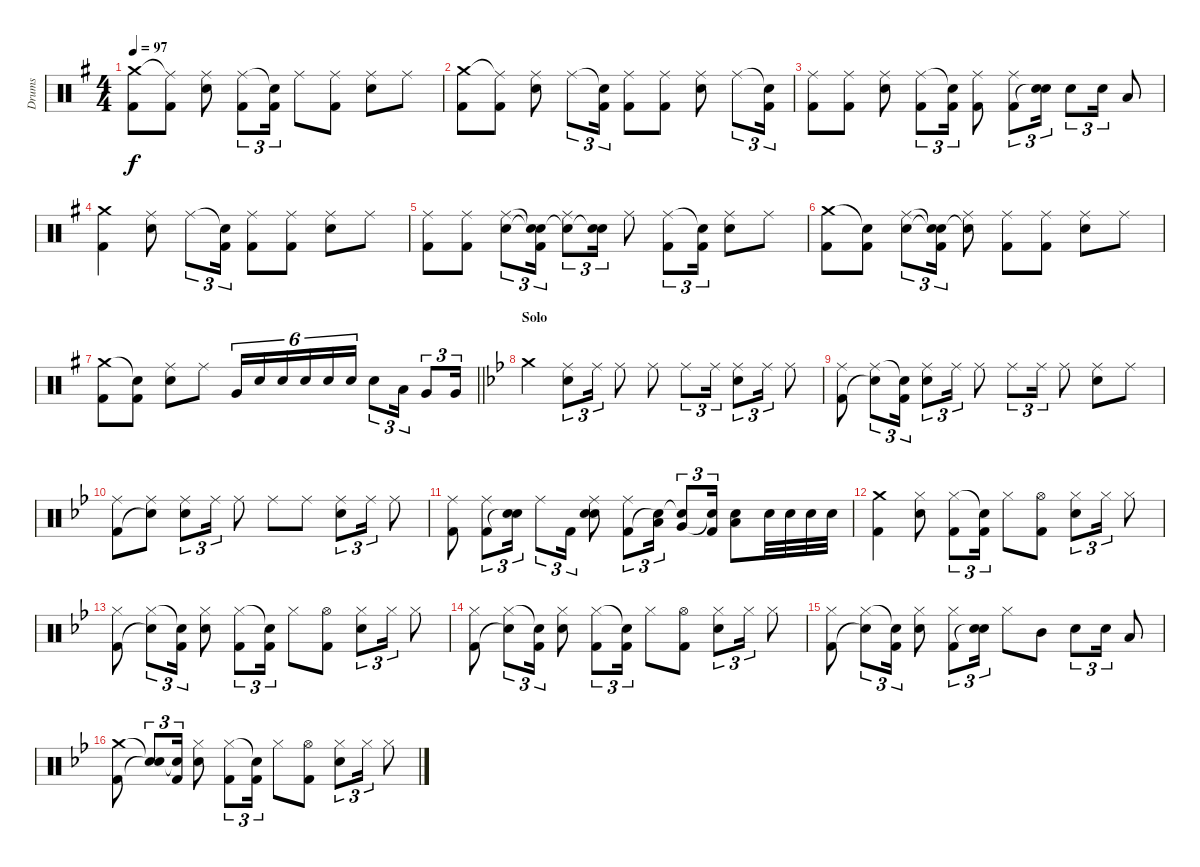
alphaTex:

\track ("Drums" "Drums") {instrument percussion}
\staff {score}
\articulation defaults
\ts (4 4)
\tempo 97
\clef neutral
\ks g
("Crash medium (hit)" "Kick (hit) 2").8{dy f} ("Ride (middle)"{t} "Kick (hit) 2").8 ("Ride (middle)" "Electric Snare (hit)").8 ("Ride (middle)" "Kick (hit) 2").8{tu (3 2)} ("Snare (hit)"{t} "Kick (hit) 2").16{tu (3 2)} "Ride (middle)".8 ("Ride (middle)" "Kick (hit) 2").8 ("Ride (middle)" "Electric Snare (hit)").8 "Ride (middle)".8 |
("Crash medium (hit)" "Kick (hit) 2").8 ("Ride (middle)"{t} "Kick (hit) 2").8 ("Ride (middle)" "Electric Snare (hit)").8 "Ride (middle)".8{tu (3 2)} ("Snare (hit)"{t} "Kick (hit) 2").16{tu (3 2)} ("Ride (middle)" "Kick (hit) 2").8 ("Ride (middle)" "Kick (hit) 2").8 ("Ride (middle)" "Electric Snare (hit)").8 "Ride (middle)".8{tu (3 2)} ("Snare (hit)"{t} "Kick (hit) 2").16{tu (3 2)} |
("Ride (middle)" "Kick (hit) 2").8 ("Ride (middle)" "Kick (hit) 2").8 ("Ride (middle)" "Electric Snare (hit)").8 ("Ride (middle)" "Kick (hit) 2").8{tu (3 2)} ("Snare (hit)"{t} "Kick (hit) 2").16{tu (3 2)} ("Ride (middle)" "Kick (hit) 2").8 ("Ride (middle)" "Kick (hit) 2").8{tu (3 2)} ("Electric Snare (hit)" "Snare (hit)"{t}).16{tu (3 2)} "Electric Snare (hit)".8{tu (3 2)} "Electric Snare (hit)".16{tu (3 2)} "Low Tom (hit)".8 |
("Crash medium (hit)" "Kick (hit) 2").4 ("Ride (middle)" "Electric Snare (hit)").8 "Ride (middle)".8{tu (3 2)} ("Snare (hit)"{t} "Kick (hit) 2").16{tu (3 2)} ("Ride (middle)" "Kick (hit) 2").8 ("Ride (middle)" "Kick (hit) 2").8 ("Ride (middle)" "Electric Snare (hit)").8 "Ride (middle)".8 |
("Ride (middle)" "Kick (hit) 2").8 ("Ride (middle)" "Kick (hit) 2").8 ("Ride (middle)" "Electric Snare (hit)").8{tu (3 2)} ("Snare (hit)"{t} "Snare (hit)"{t} "Kick (hit) 2").16{tu (3 2)} ("Ride (middle)" "Snare (hit)"{t}).8{tu (3 2)} ("Electric Snare (hit)" "Snare (hit)"{t}).16{tu (3 2)} "Ride (middle)".8 ("Ride (middle)" "Kick (hit) 2").8{tu (3 2)} ("Snare (hit)"{t} "Kick (hit) 2").16{tu (3 2)} ("Ride (middle)" "Electric Snare (hit)").8 "Ride (middle)".8 |
("Crash medium (hit)" "Kick (hit) 2").8 ("Snare (hit)"{t} "Kick (hit) 2").8 ("Ride (middle)" "Electric Snare (hit)").8{tu (3 2)} ("Snare (hit)"{t} "Snare (hit)"{t} "Kick (hit) 2").16{tu (3 2)} ("Ride (middle)" "Snare (hit)"{t}).8 ("Ride (middle)" "Kick (hit) 2").8 ("Ride (middle)" "Kick (hit) 2").8 ("Ride (middle)" "Electric Snare (hit)").8 "Ride (middle)".8 |
\barLineRight lightlight
("Crash medium (hit)" "Kick (hit) 2").8 ("Snare (hit)"{t} "Kick (hit) 2").8 ("Ride (middle)" "Electric Snare (hit)").8 "Ride (middle)".8 "Very Low Tom (hit)".16{tu (6 4)} "Electric Snare (hit)".16{tu (6 4)} "Electric Snare (hit)".16{tu (6 4)} "Electric Snare (hit)".16{tu (6 4)} "Electric Snare (hit)".16{tu (6 4)} "Electric Snare (hit)".16{tu (6 4)} "Electric Snare (hit)".8{tu (3 2)} "Low Tom (hit)".16{tu (3 2)} "Very Low Tom (hit)".8{tu (3 2)} "Very Low Tom (hit)".16{tu (3 2)} |
\section ("" "Solo")
\ks bb "Crash medium (hit)".4
("Ride (middle)" "Electric Snare (hit)").8{tu (3 2)} "Ride (middle)".16{tu (3 2)} "Ride (middle)".8 "Ride (middle)".8 "Ride (middle)".8{tu (3 2)} "Ride (middle)".16{tu (3 2)} ("Ride (middle)" "Electric Snare (hit)").8{tu (3 2)} "Ride (middle)".16{tu (3 2)} "Ride (middle)".8 |
("Ride (middle)" "Kick (hit) 2").8 ("Ride (middle)" "Snare (hit)"{t}).8{tu (3 2)} ("Snare (hit)"{t} "Kick (hit) 2").16{tu (3 2)} ("Ride (middle)" "Electric Snare (hit)").8{tu (3 2)} "Ride (middle)".16{tu (3 2)} "Ride (middle)".8 "Ride (middle)".8{tu (3 2)} "Ride (middle)".16{tu (3 2)} "Ride (middle)".8 ("Ride (middle)" "Electric Snare (hit)").8 "Ride (middle)".8 |
("Ride (middle)" "Kick (hit) 2").8 ("Ride (middle)" "Snare (hit)"{t}).8 ("Ride (middle)" "Electric Snare (hit)").8{tu (3 2)} "Ride (middle)".16{tu (3 2)} "Ride (middle)".8 "Ride (middle)".8 "Ride (middle)".8 ("Ride (middle)" "Electric Snare (hit)").8{tu (3 2)} "Ride (middle)".16{tu (3 2)} "Ride (middle)".8 |
("Ride (middle)" "Kick (hit) 2").8 ("Ride (middle)" "Kick (hit) 2").8{tu (3 2)} ("Electric Snare (hit)" "Snare (hit)"{t}).16{tu (3 2)} "Ride (middle)".8{tu (3 2)} "Kick (hit) 2".16{tu (3 2)} ("Ride (middle)" "Electric Snare (hit)" "Snare (hit)").8 ("Ride (middle)" "Kick (hit) 2").8{tu (3 2)} ("Low Tom (hit)" "Snare (hit)"{t}).16{tu (3 2)} ("Very Low Tom (hit)" "Snare (hit)"{t}).8{tu (3 2)} ("Snare (hit)"{t} "Kick (hit) 2").16{tu (3 2)} ("Electric Snare (hit)" "Low Floor Tom (hit)").8 "Electric Snare (hit)".32 "Electric Snare (hit)".32 "Electric Snare (hit)".32 "Electric Snare (hit)".32 |
("Crash medium (hit)" "Kick (hit) 2").4 ("Hi-Hat (closed)" "Electric Snare (hit)").8 ("Hi-Hat (closed)" "Kick (hit) 2").8{tu (3 2)} ("Snare (hit)"{t} "Kick (hit) 2").16{tu (3 2)} "Hi-Hat (closed)".8 ("Hi-Hat (open)" "Kick (hit) 2").8 ("Hi-Hat (closed)" "Electric Snare (hit)").8{tu (3 2)} "Hi-Hat (closed)".16{tu (3 2)} "Hi-Hat (closed)".8 |
("Hi-Hat (closed)" "Kick (hit) 2").8 ("Hi-Hat (closed)" "Snare (hit)"{t}).8{tu (3 2)} ("Snare (hit)"{t} "Kick (hit) 2").16{tu (3 2)} ("Hi-Hat (closed)" "Electric Snare (hit)").8 ("Hi-Hat (closed)" "Kick (hit) 2").8{tu (3 2)} ("Snare (hit)"{t} "Kick (hit) 2").16{tu (3 2)} "Hi-Hat (closed)".8 ("Hi-Hat (open)" "Kick (hit) 2").8 ("Hi-Hat (closed)" "Electric Snare (hit)").8{tu (3 2)} "Hi-Hat (closed)".16{tu (3 2)} "Hi-Hat (closed)".8 |
("Hi-Hat (closed)" "Kick (hit) 2").8 ("Hi-Hat (closed)" "Snare (hit)"{t}).8{tu (3 2)} ("Snare (hit)"{t} "Kick (hit) 2").16{tu (3 2)} ("Hi-Hat (closed)" "Electric Snare (hit)").8 ("Hi-Hat (closed)" "Kick (hit) 2").8{tu (3 2)} ("Snare (hit)"{t} "Kick (hit) 2").16{tu (3 2)} "Hi-Hat (closed)".8 ("Hi-Hat (open)" "Kick (hit) 2").8 ("Hi-Hat (closed)" "Electric Snare (hit)").8{tu (3 2)} "Hi-Hat (closed)".16{tu (3 2)} "Hi-Hat (closed)".8 |
("Hi-Hat (closed)" "Kick (hit) 2").8 ("Hi-Hat (closed)" "Snare (hit)"{t}).8{tu (3 2)} ("Snare (hit)"{t} "Kick (hit) 2").16{tu (3 2)} ("Hi-Hat (closed)" "Electric Snare (hit)").8 ("Hi-Hat (closed)" "Kick (hit) 2").8{tu (3 2)} ("Electric Snare (hit)" "Snare (hit)"{t}).16{tu (3 2)} "Hi-Hat (closed)".8 "Mid Tom (hit)".8 "Electric Snare (hit)".8{tu (3 2)} "Electric Snare (hit)".16{tu (3 2)} "Low Tom (hit)".8 |
("Crash medium (hit)" "Kick (hit) 2").8 ("Snare (hit)"{t} "Snare (hit)"{t}).8{tu (3 2)} ("Snare (hit)"{t} "Kick (hit) 2").16{tu (3 2)} ("Hi-Hat (closed)" "Electric Snare (hit)").8 ("Hi-Hat (closed)" "Kick (hit) 2").8{tu (3 2)} ("Snare (hit)"{t} "Kick (hit) 2").16{tu (3 2)} "Hi-Hat (closed)".8 ("Hi-Hat (open)" "Kick (hit) 2").8 ("Hi-Hat (closed)" "Electric Snare (hit)").8{tu (3 2)} "Hi-Hat (closed)".16{tu (3 2)} "Hi-Hat (closed)".8
